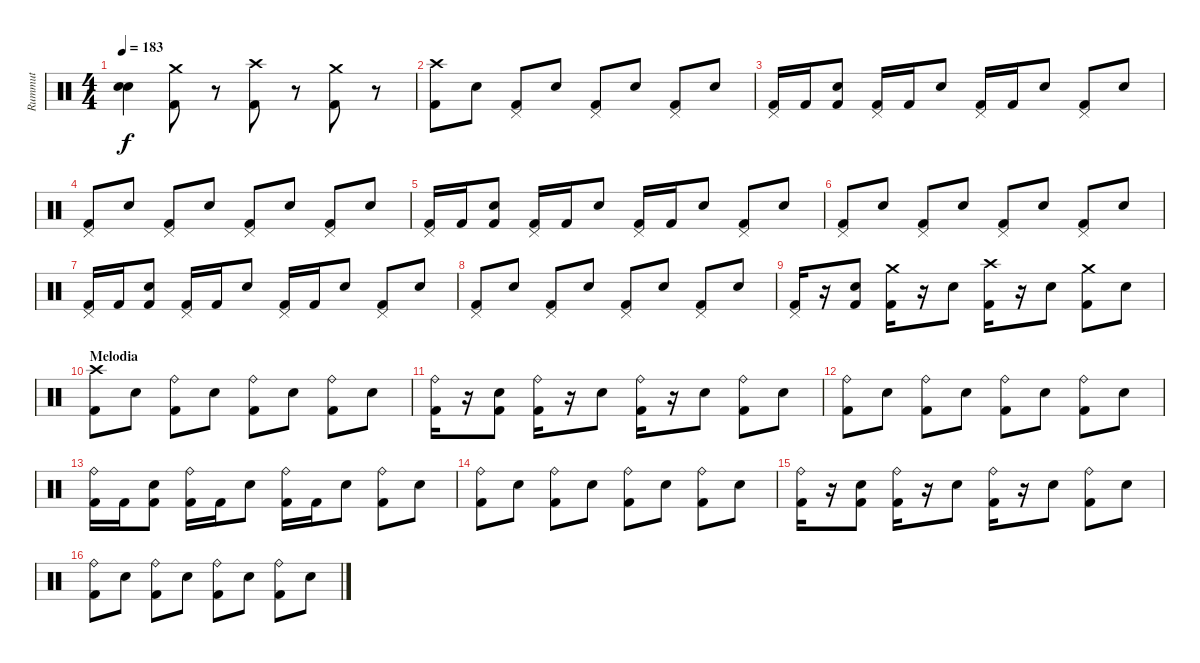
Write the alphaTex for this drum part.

\track ("Rummut" "Rummut") {instrument percussion}
\staff {score}
\articulation defaults
\ts (4 4)
\tempo 183
\clef neutral
\ks c
("Electric Snare (hit)" "Electric Snare (hit)").4{dy f} ("Crash medium (hit)" "Kick (hit) 2").8 r.8 ("Crash high (hit)" "Kick (hit) 2").8 r.8 ("Crash medium (hit)" "Kick (hit) 2").8 r.8 |
("Crash high (hit)" "Kick (hit) 2").8 "Electric Snare (hit)".8 ("Pedal Hi-Hat (hit)" "Kick (hit) 2").8 "Electric Snare (hit)".8 ("Pedal Hi-Hat (hit)" "Kick (hit) 2").8 "Electric Snare (hit)".8 ("Pedal Hi-Hat (hit)" "Kick (hit) 2").8 "Electric Snare (hit)".8 |
("Pedal Hi-Hat (hit)" "Kick (hit) 2").16 "Kick (hit) 2".16 ("Electric Snare (hit)" "Kick (hit) 2").8 ("Pedal Hi-Hat (hit)" "Kick (hit) 2").16 "Kick (hit) 2".16 "Electric Snare (hit)".8 ("Pedal Hi-Hat (hit)" "Kick (hit) 2").16 "Kick (hit) 2".16 "Electric Snare (hit)".8 ("Pedal Hi-Hat (hit)" "Kick (hit) 2").8 "Electric Snare (hit)".8 |
("Pedal Hi-Hat (hit)" "Kick (hit) 2").8 "Electric Snare (hit)".8 ("Pedal Hi-Hat (hit)" "Kick (hit) 2").8 "Electric Snare (hit)".8 ("Pedal Hi-Hat (hit)" "Kick (hit) 2").8 "Electric Snare (hit)".8 ("Pedal Hi-Hat (hit)" "Kick (hit) 2").8 "Electric Snare (hit)".8 |
("Pedal Hi-Hat (hit)" "Kick (hit) 2").16 "Kick (hit) 2".16 ("Electric Snare (hit)" "Kick (hit) 2").8 ("Pedal Hi-Hat (hit)" "Kick (hit) 2").16 "Kick (hit) 2".16 "Electric Snare (hit)".8 ("Pedal Hi-Hat (hit)" "Kick (hit) 2").16 "Kick (hit) 2".16 "Electric Snare (hit)".8 ("Pedal Hi-Hat (hit)" "Kick (hit) 2").8 "Electric Snare (hit)".8 |
("Pedal Hi-Hat (hit)" "Kick (hit) 2").8 "Electric Snare (hit)".8 ("Pedal Hi-Hat (hit)" "Kick (hit) 2").8 "Electric Snare (hit)".8 ("Pedal Hi-Hat (hit)" "Kick (hit) 2").8 "Electric Snare (hit)".8 ("Pedal Hi-Hat (hit)" "Kick (hit) 2").8 "Electric Snare (hit)".8 |
("Pedal Hi-Hat (hit)" "Kick (hit) 2").16 "Kick (hit) 2".16 ("Electric Snare (hit)" "Kick (hit) 2").8 ("Pedal Hi-Hat (hit)" "Kick (hit) 2").16 "Kick (hit) 2".16 "Electric Snare (hit)".8 ("Pedal Hi-Hat (hit)" "Kick (hit) 2").16 "Kick (hit) 2".16 "Electric Snare (hit)".8 ("Pedal Hi-Hat (hit)" "Kick (hit) 2").8 "Electric Snare (hit)".8 |
("Pedal Hi-Hat (hit)" "Kick (hit) 2").8 "Electric Snare (hit)".8 ("Pedal Hi-Hat (hit)" "Kick (hit) 2").8 "Electric Snare (hit)".8 ("Pedal Hi-Hat (hit)" "Kick (hit) 2").8 "Electric Snare (hit)".8 ("Pedal Hi-Hat (hit)" "Kick (hit) 2").8 "Electric Snare (hit)".8 |
("Pedal Hi-Hat (hit)" "Kick (hit) 2").16 r.16 ("Electric Snare (hit)" "Kick (hit) 2").8 ("Crash medium (hit)" "Kick (hit) 2").16 r.16 "Electric Snare (hit)".8 ("Crash high (hit)" "Kick (hit) 2").16 r.16 "Electric Snare (hit)".8 ("Crash medium (hit)" "Kick (hit) 2").8 "Electric Snare (hit)".8 |
\section ("" "Melodia")
("Crash high (hit)" "Kick (hit) 2").8 "Electric Snare (hit)".8 ("Ride (bell)" "Kick (hit) 2").8 "Electric Snare (hit)".8 ("Ride (bell)" "Kick (hit) 2").8 "Electric Snare (hit)".8 ("Ride (bell)" "Kick (hit) 2").8 "Electric Snare (hit)".8 |
("Ride (bell)" "Kick (hit) 2").16 r.16 ("Electric Snare (hit)" "Kick (hit) 2").8 ("Ride (bell)" "Kick (hit) 2").16 r.16 "Electric Snare (hit)".8 ("Ride (bell)" "Kick (hit) 2").16 r.16 "Electric Snare (hit)".8 ("Ride (bell)" "Kick (hit) 2").8 "Electric Snare (hit)".8 |
("Ride (bell)" "Kick (hit) 2").8 "Electric Snare (hit)".8 ("Ride (bell)" "Kick (hit) 2").8 "Electric Snare (hit)".8 ("Ride (bell)" "Kick (hit) 2").8 "Electric Snare (hit)".8 ("Ride (bell)" "Kick (hit) 2").8 "Electric Snare (hit)".8 |
("Ride (bell)" "Kick (hit) 2").16 "Kick (hit) 2".16 ("Electric Snare (hit)" "Kick (hit) 2").8 ("Ride (bell)" "Kick (hit) 2").16 "Kick (hit) 2".16 "Electric Snare (hit)".8 ("Ride (bell)" "Kick (hit) 2").16 "Kick (hit) 2".16 "Electric Snare (hit)".8 ("Ride (bell)" "Kick (hit) 2").8 "Electric Snare (hit)".8 |
("Ride (bell)" "Kick (hit) 2").8 "Electric Snare (hit)".8 ("Ride (bell)" "Kick (hit) 2").8 "Electric Snare (hit)".8 ("Ride (bell)" "Kick (hit) 2").8 "Electric Snare (hit)".8 ("Ride (bell)" "Kick (hit) 2").8 "Electric Snare (hit)".8 |
("Ride (bell)" "Kick (hit) 2").16 r.16 ("Electric Snare (hit)" "Kick (hit) 2").8 ("Ride (bell)" "Kick (hit) 2").16 r.16 "Electric Snare (hit)".8 ("Ride (bell)" "Kick (hit) 2").16 r.16 "Electric Snare (hit)".8 ("Ride (bell)" "Kick (hit) 2").8 "Electric Snare (hit)".8 |
("Ride (bell)" "Kick (hit) 2").8 "Electric Snare (hit)".8 ("Ride (bell)" "Kick (hit) 2").8 "Electric Snare (hit)".8 ("Ride (bell)" "Kick (hit) 2").8 "Electric Snare (hit)".8 ("Ride (bell)" "Kick (hit) 2").8 "Electric Snare (hit)".8
